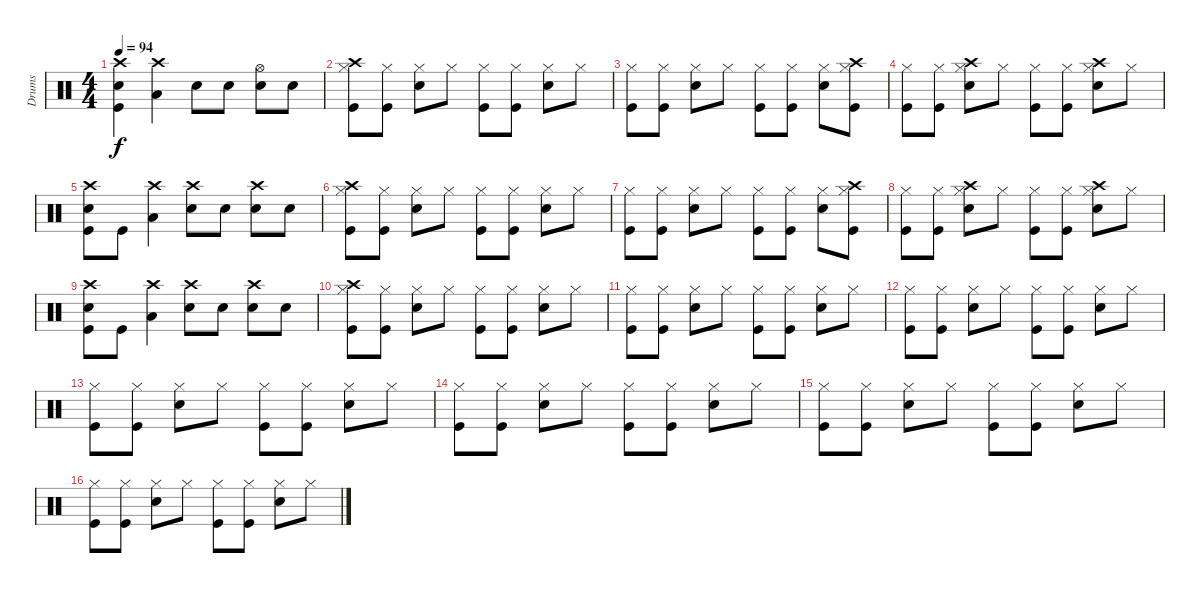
\track ("Drums" "Drums") {instrument percussion}
\staff {score}
\articulation defaults
\ts (4 4)
\tempo 94
\clef neutral
\ks c
("Crash high (hit)" "Snare (hit) 2" "Kick (hit)").4{dy f} ("Crash high (hit)" "Low Tom (hit)").4 "Snare (hit) 2".8 "Snare (hit) 2".8 ("Hi-Hat (open)" "Snare (hit) 2").8 "Snare (hit) 2".8 |
("Crash high (hit)" "Hi-Hat (closed)" "Kick (hit)").8 ("Hi-Hat (closed)" "Kick (hit)").8 ("Hi-Hat (closed)" "Snare (hit) 2").8 "Hi-Hat (closed)".8 ("Hi-Hat (closed)" "Kick (hit)").8 ("Hi-Hat (closed)" "Kick (hit)").8 ("Hi-Hat (closed)" "Snare (hit) 2").8 "Hi-Hat (closed)".8 |
("Hi-Hat (closed)" "Kick (hit)").8 ("Hi-Hat (closed)" "Kick (hit)").8 ("Hi-Hat (closed)" "Snare (hit) 2").8 "Hi-Hat (closed)".8 ("Hi-Hat (closed)" "Kick (hit)").8 ("Hi-Hat (closed)" "Kick (hit)").8 ("Hi-Hat (closed)" "Snare (hit) 2").8 ("Crash high (hit)" "Hi-Hat (closed)" "Kick (hit)").8 |
("Hi-Hat (closed)" "Kick (hit)").8 ("Hi-Hat (closed)" "Kick (hit)").8 ("Crash high (hit)" "Hi-Hat (closed)" "Snare (hit) 2").8 "Hi-Hat (closed)".8 ("Hi-Hat (closed)" "Kick (hit)").8 ("Hi-Hat (closed)" "Kick (hit)").8 ("Crash high (hit)" "Hi-Hat (closed)" "Snare (hit) 2").8 "Hi-Hat (closed)".8 |
("Crash high (hit)" "Snare (hit) 2" "Kick (hit)").8 "Kick (hit)".8 ("Crash high (hit)" "Low Tom (hit)").4 ("Crash high (hit)" "Snare (hit) 2").8 "Snare (hit) 2".8 ("Crash high (hit)" "Snare (hit) 2").8 "Snare (hit) 2".8 |
("Crash high (hit)" "Hi-Hat (closed)" "Kick (hit)").8 ("Hi-Hat (closed)" "Kick (hit)").8 ("Hi-Hat (closed)" "Snare (hit) 2").8 "Hi-Hat (closed)".8 ("Hi-Hat (closed)" "Kick (hit)").8 ("Hi-Hat (closed)" "Kick (hit)").8 ("Hi-Hat (closed)" "Snare (hit) 2").8 "Hi-Hat (closed)".8 |
("Hi-Hat (closed)" "Kick (hit)").8 ("Hi-Hat (closed)" "Kick (hit)").8 ("Hi-Hat (closed)" "Snare (hit) 2").8 "Hi-Hat (closed)".8 ("Hi-Hat (closed)" "Kick (hit)").8 ("Hi-Hat (closed)" "Kick (hit)").8 ("Hi-Hat (closed)" "Snare (hit) 2").8 ("Crash high (hit)" "Hi-Hat (closed)" "Kick (hit)").8 |
("Hi-Hat (closed)" "Kick (hit)").8 ("Hi-Hat (closed)" "Kick (hit)").8 ("Crash high (hit)" "Hi-Hat (closed)" "Snare (hit) 2").8 "Hi-Hat (closed)".8 ("Hi-Hat (closed)" "Kick (hit)").8 ("Hi-Hat (closed)" "Kick (hit)").8 ("Crash high (hit)" "Hi-Hat (closed)" "Snare (hit) 2").8 "Hi-Hat (closed)".8 |
("Crash high (hit)" "Snare (hit) 2" "Kick (hit)").8 "Kick (hit)".8 ("Crash high (hit)" "Low Tom (hit)").4 ("Crash high (hit)" "Snare (hit) 2").8 "Snare (hit) 2".8 ("Crash high (hit)" "Snare (hit) 2").8 "Snare (hit) 2".8 |
("Crash high (hit)" "Hi-Hat (closed)" "Kick (hit)").8 ("Hi-Hat (closed)" "Kick (hit)").8 ("Hi-Hat (closed)" "Snare (hit) 2").8 "Hi-Hat (closed)".8 ("Hi-Hat (closed)" "Kick (hit)").8 ("Hi-Hat (closed)" "Kick (hit)").8 ("Hi-Hat (closed)" "Snare (hit) 2").8 "Hi-Hat (closed)".8 |
("Hi-Hat (closed)" "Kick (hit)").8 ("Hi-Hat (closed)" "Kick (hit)").8 ("Hi-Hat (closed)" "Snare (hit) 2").8 "Hi-Hat (closed)".8 ("Hi-Hat (closed)" "Kick (hit)").8 ("Hi-Hat (closed)" "Kick (hit)").8 ("Hi-Hat (closed)" "Snare (hit) 2").8 "Hi-Hat (closed)".8 |
("Hi-Hat (closed)" "Kick (hit)").8 ("Hi-Hat (closed)" "Kick (hit)").8 ("Hi-Hat (closed)" "Snare (hit) 2").8 "Hi-Hat (closed)".8 ("Hi-Hat (closed)" "Kick (hit)").8 ("Hi-Hat (closed)" "Kick (hit)").8 ("Hi-Hat (closed)" "Snare (hit) 2").8 "Hi-Hat (closed)".8 |
("Hi-Hat (closed)" "Kick (hit)").8 ("Hi-Hat (closed)" "Kick (hit)").8 ("Hi-Hat (closed)" "Snare (hit) 2").8 "Hi-Hat (closed)".8 ("Hi-Hat (closed)" "Kick (hit)").8 ("Hi-Hat (closed)" "Kick (hit)").8 ("Hi-Hat (closed)" "Snare (hit) 2").8 "Hi-Hat (closed)".8 |
("Hi-Hat (closed)" "Kick (hit)").8 ("Hi-Hat (closed)" "Kick (hit)").8 ("Hi-Hat (closed)" "Snare (hit) 2").8 "Hi-Hat (closed)".8 ("Hi-Hat (closed)" "Kick (hit)").8 ("Hi-Hat (closed)" "Kick (hit)").8 ("Hi-Hat (closed)" "Snare (hit) 2").8 "Hi-Hat (closed)".8 |
("Hi-Hat (closed)" "Kick (hit)").8 ("Hi-Hat (closed)" "Kick (hit)").8 ("Hi-Hat (closed)" "Snare (hit) 2").8 "Hi-Hat (closed)".8 ("Hi-Hat (closed)" "Kick (hit)").8 ("Hi-Hat (closed)" "Kick (hit)").8 ("Hi-Hat (closed)" "Snare (hit) 2").8 "Hi-Hat (closed)".8 |
("Hi-Hat (closed)" "Kick (hit)").8 ("Hi-Hat (closed)" "Kick (hit)").8 ("Hi-Hat (closed)" "Snare (hit) 2").8 "Hi-Hat (closed)".8 ("Hi-Hat (closed)" "Kick (hit)").8 ("Hi-Hat (closed)" "Kick (hit)").8 ("Hi-Hat (closed)" "Snare (hit) 2").8 "Hi-Hat (closed)".8
